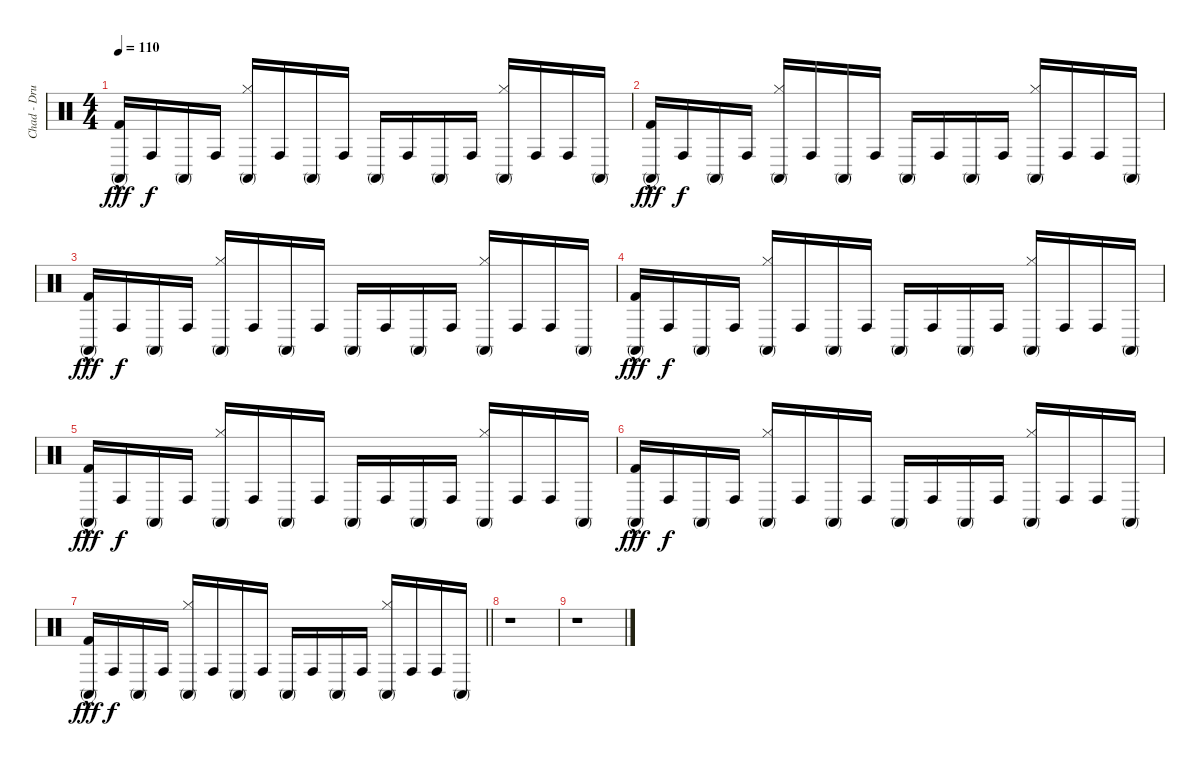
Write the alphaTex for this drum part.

\track ("Chad - Drums" "Chad - Dru") {instrument percussion}
\staff {score}
\articulation defaults
\ts (4 4)
\tempo 110
\clef neutral
\ks c
("Conga high (mute)" "Kick (hit) 2"{hac}).16{dy fff} "Conga high (hit)".16{dy f} "Conga high (mute)".16 "Conga high (hit)".16 ("Conga high (mute)" "Hi-Hat (closed)").16 "Conga high (hit)".16 "Conga high (mute)".16 "Conga high (hit)".16 "Conga high (mute)".16 "Conga high (hit)".16 "Conga high (mute)".16 "Conga high (hit)".16 ("Conga high (mute)" "Hi-Hat (closed)").16 "Conga high (hit)".16 "Conga high (hit)".16 "Conga high (mute)".16 |
("Conga high (mute)" "Kick (hit) 2"{hac}).16{dy fff} "Conga high (hit)".16{dy f} "Conga high (mute)".16 "Conga high (hit)".16 ("Conga high (mute)" "Hi-Hat (closed)").16 "Conga high (hit)".16 "Conga high (mute)".16 "Conga high (hit)".16 "Conga high (mute)".16 "Conga high (hit)".16 "Conga high (mute)".16 "Conga high (hit)".16 ("Conga high (mute)" "Hi-Hat (closed)").16 "Conga high (hit)".16 "Conga high (hit)".16 "Conga high (mute)".16 |
("Conga high (mute)" "Kick (hit) 2"{hac}).16{dy fff} "Conga high (hit)".16{dy f} "Conga high (mute)".16 "Conga high (hit)".16 ("Conga high (mute)" "Hi-Hat (closed)").16 "Conga high (hit)".16 "Conga high (mute)".16 "Conga high (hit)".16 "Conga high (mute)".16 "Conga high (hit)".16 "Conga high (mute)".16 "Conga high (hit)".16 ("Conga high (mute)" "Hi-Hat (closed)").16 "Conga high (hit)".16 "Conga high (hit)".16 "Conga high (mute)".16 |
("Conga high (mute)" "Kick (hit) 2"{hac}).16{dy fff} "Conga high (hit)".16{dy f} "Conga high (mute)".16 "Conga high (hit)".16 ("Conga high (mute)" "Hi-Hat (closed)").16 "Conga high (hit)".16 "Conga high (mute)".16 "Conga high (hit)".16 "Conga high (mute)".16 "Conga high (hit)".16 "Conga high (mute)".16 "Conga high (hit)".16 ("Conga high (mute)" "Hi-Hat (closed)").16 "Conga high (hit)".16 "Conga high (hit)".16 "Conga high (mute)".16 |
("Conga high (mute)" "Kick (hit) 2"{hac}).16{dy fff} "Conga high (hit)".16{dy f} "Conga high (mute)".16 "Conga high (hit)".16 ("Conga high (mute)" "Hi-Hat (closed)").16 "Conga high (hit)".16 "Conga high (mute)".16 "Conga high (hit)".16 "Conga high (mute)".16 "Conga high (hit)".16 "Conga high (mute)".16 "Conga high (hit)".16 ("Conga high (mute)" "Hi-Hat (closed)").16 "Conga high (hit)".16 "Conga high (hit)".16 "Conga high (mute)".16 |
("Conga high (mute)" "Kick (hit) 2"{hac}).16{dy fff} "Conga high (hit)".16{dy f} "Conga high (mute)".16 "Conga high (hit)".16 ("Conga high (mute)" "Hi-Hat (closed)").16 "Conga high (hit)".16 "Conga high (mute)".16 "Conga high (hit)".16 "Conga high (mute)".16 "Conga high (hit)".16 "Conga high (mute)".16 "Conga high (hit)".16 ("Conga high (mute)" "Hi-Hat (closed)").16 "Conga high (hit)".16 "Conga high (hit)".16 "Conga high (mute)".16 |
\barLineRight lightlight
("Conga high (mute)" "Kick (hit) 2"{hac}).16{dy fff} "Conga high (hit)".16{dy f} "Conga high (mute)".16 "Conga high (hit)".16 ("Conga high (mute)" "Hi-Hat (closed)").16 "Conga high (hit)".16 "Conga high (mute)".16 "Conga high (hit)".16 "Conga high (mute)".16 "Conga high (hit)".16 "Conga high (mute)".16 "Conga high (hit)".16 ("Conga high (mute)" "Hi-Hat (closed)").16 "Conga high (hit)".16 "Conga high (hit)".16 "Conga high (mute)".16 |
r.1 |
r.1
